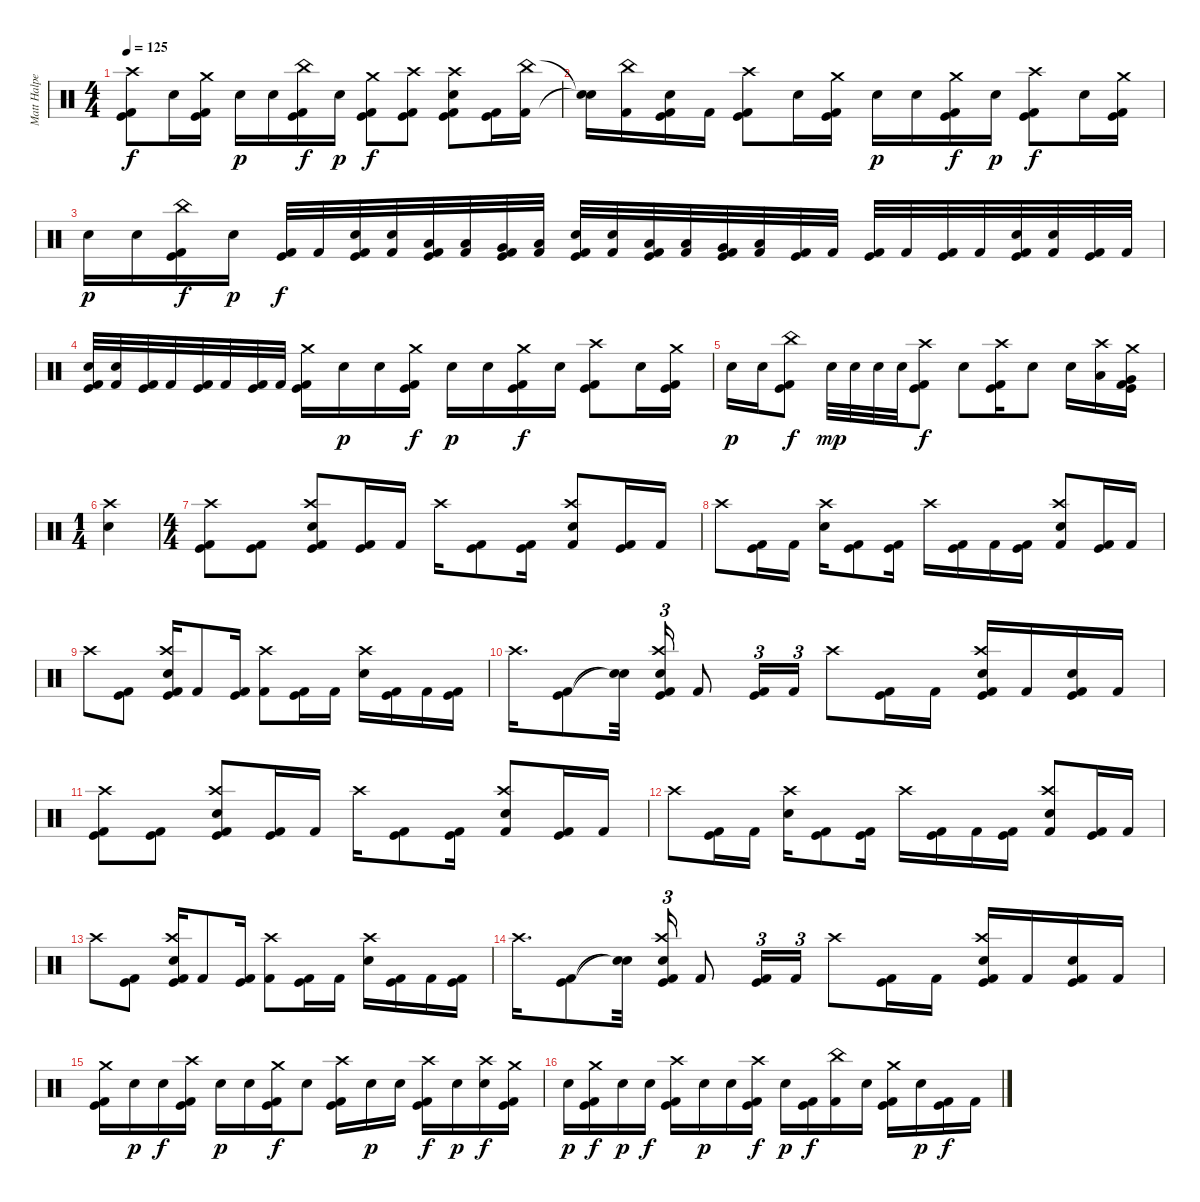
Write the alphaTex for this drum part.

\track ("Matt Halpern" "Matt Halpe") {instrument percussion}
\staff {score}
\articulation defaults
\ts (4 4)
\tempo 125
\clef neutral
\ks c
("Kick (hit) 2" "Kick (hit)" "Crash high (hit)").8{dy f} "Electric Snare (hit)".16 ("Kick (hit) 2" "Kick (hit)" "Crash medium (hit)").16 "Electric Snare (hit)".16{dy p} "Electric Snare (hit)".16 ("Kick (hit) 2" "Kick (hit)" "China (hit)").16{dy f} "Electric Snare (hit)".16{dy p} ("Kick (hit) 2" "Kick (hit)" "Crash medium (hit)").8{dy f} ("Kick (hit) 2" "Kick (hit)" "Crash high (hit)").8 ("Kick (hit) 2" "Kick (hit)" "Electric Snare (hit)" "Crash high (hit)").8 ("Kick (hit) 2" "Kick (hit)").16 ("Kick (hit) 2" "China (hit)").16 |
("Snare (hit)"{t} "Snare (hit)"{t}).16 ("Kick (hit) 2" "China (hit)").16 ("Kick (hit) 2" "Kick (hit)" "Electric Snare (hit)").16 "Kick (hit) 2".16 ("Kick (hit) 2" "Kick (hit)" "Crash high (hit)").8 "Electric Snare (hit)".16 ("Kick (hit) 2" "Kick (hit)" "Crash medium (hit)").16 "Electric Snare (hit)".16{dy p} "Electric Snare (hit)".16 ("Kick (hit) 2" "Kick (hit)" "Crash medium (hit)").16{dy f} "Electric Snare (hit)".16{dy p} ("Kick (hit) 2" "Kick (hit)" "Crash high (hit)").8{dy f} "Electric Snare (hit)".16 ("Kick (hit) 2" "Kick (hit)" "Crash medium (hit)").16 |
"Electric Snare (hit)".16{dy p} "Electric Snare (hit)".16 ("Kick (hit) 2" "Kick (hit)" "China (hit)").16{dy f} "Electric Snare (hit)".16{dy p} ("Kick (hit) 2" "Kick (hit)").32{dy f} "Kick (hit) 2".32 ("Kick (hit) 2" "Kick (hit)" "Electric Snare (hit)").32 ("Kick (hit) 2" "Electric Snare (hit)").32 ("Kick (hit) 2" "Kick (hit)" "Low Tom (hit)").32 ("Kick (hit) 2" "Low Tom (hit)").32 ("Kick (hit) 2" "Kick (hit)" "Very Low Tom (hit)").32 ("Kick (hit) 2" "Low Floor Tom (hit)").32 ("Kick (hit) 2" "Kick (hit)" "Electric Snare (hit)").32 ("Kick (hit) 2" "Electric Snare (hit)").32 ("Kick (hit) 2" "Kick (hit)" "Low Tom (hit)").32 ("Kick (hit) 2" "Low Tom (hit)").32 ("Kick (hit) 2" "Kick (hit)" "Very Low Tom (hit)").32 ("Kick (hit) 2" "Low Floor Tom (hit)").32 ("Kick (hit) 2" "Kick (hit)").32 "Kick (hit) 2".32 ("Kick (hit) 2" "Kick (hit)").32 "Kick (hit) 2".32 ("Kick (hit) 2" "Kick (hit)").32 "Kick (hit) 2".32 ("Kick (hit) 2" "Kick (hit)" "Electric Snare (hit)").32 ("Kick (hit) 2" "Electric Snare (hit)").32 ("Kick (hit) 2" "Kick (hit)").32 "Kick (hit) 2".32 |
("Kick (hit) 2" "Kick (hit)" "Electric Snare (hit)").32 ("Kick (hit) 2" "Electric Snare (hit)").32 ("Kick (hit) 2" "Kick (hit)").32 "Kick (hit) 2".32 ("Kick (hit) 2" "Kick (hit)").32 "Kick (hit) 2".32 ("Kick (hit) 2" "Kick (hit)").32 "Kick (hit) 2".32 ("Kick (hit) 2" "Kick (hit)" "Crash medium (hit)").16 "Electric Snare (hit)".16{dy p} "Electric Snare (hit)".16 ("Kick (hit) 2" "Kick (hit)" "Crash medium (hit)").16{dy f} "Electric Snare (hit)".16{dy p} "Electric Snare (hit)".16 ("Kick (hit) 2" "Kick (hit)" "Crash medium (hit)").16{dy f} "Electric Snare (hit)".16 ("Kick (hit) 2" "Kick (hit)" "Crash high (hit)").8 "Electric Snare (hit)".16 ("Kick (hit) 2" "Kick (hit)" "Crash medium (hit)").16 |
"Electric Snare (hit)".16{dy p} "Electric Snare (hit)".16 ("Kick (hit) 2" "Kick (hit)" "China (hit)").8{dy f} "Electric Snare (hit)".32{dy mp} "Electric Snare (hit)".32 "Electric Snare (hit)".32 "Electric Snare (hit)".32 ("Kick (hit) 2" "Kick (hit)" "Crash high (hit)").8{dy f} "Electric Snare (hit)".8 ("Kick (hit) 2" "Kick (hit)" "Crash high (hit)").16 "Electric Snare (hit)".8 "Electric Snare (hit)".16 ("Low Tom (hit)" "Crash high (hit)").16 ("Kick (hit) 2" "Kick (hit)" "Very Low Tom (hit)" "Crash medium (hit)").16 |
\ts (1 4)
("Electric Snare (hit)" "Crash high (hit)").4 |
\ts (4 4)
("Kick (hit) 2" "Kick (hit)" "Crash high (hit)").8 ("Kick (hit) 2" "Kick (hit)").8 ("Kick (hit) 2" "Kick (hit)" "Electric Snare (hit)" "Crash high (hit)").8 ("Kick (hit) 2" "Kick (hit)").16 "Kick (hit) 2".16 "Crash high (hit)".16 ("Kick (hit) 2" "Kick (hit)").8 ("Kick (hit) 2" "Kick (hit)").16 ("Kick (hit) 2" "Electric Snare (hit)" "Crash high (hit)").8 ("Kick (hit) 2" "Kick (hit)").16 "Kick (hit) 2".16 |
"Crash high (hit)".8 ("Kick (hit) 2" "Kick (hit)").16 "Kick (hit) 2".16 ("Electric Snare (hit)" "Crash high (hit)").16 ("Kick (hit) 2" "Kick (hit)").8 ("Kick (hit) 2" "Kick (hit)").16 "Crash high (hit)".16 ("Kick (hit) 2" "Kick (hit)").16 "Kick (hit) 2".16 ("Kick (hit) 2" "Kick (hit)").16 ("Kick (hit) 2" "Electric Snare (hit)" "Crash high (hit)").8 ("Kick (hit) 2" "Kick (hit)").16 "Kick (hit) 2".16 |
"Crash high (hit)".8 ("Kick (hit) 2" "Kick (hit)").8 ("Kick (hit) 2" "Kick (hit)" "Electric Snare (hit)" "Crash high (hit)").16 "Kick (hit) 2".8 ("Kick (hit) 2" "Kick (hit)").16 ("Kick (hit) 2" "Crash high (hit)").8 ("Kick (hit) 2" "Kick (hit)").16 "Kick (hit) 2".16 ("Electric Snare (hit)" "Crash high (hit)").16 ("Kick (hit) 2" "Kick (hit)").16 "Kick (hit) 2".16 ("Kick (hit) 2" "Kick (hit)").16 |
"Crash high (hit)".16{d} ("Kick (hit) 2" "Kick (hit)").8 ("Snare (hit)"{t} "Snare (hit)"{t}).32 ("Kick (hit) 2" "Kick (hit)" "Electric Snare (hit)" "Crash high (hit)").16{tu (3 2)} "Kick (hit) 2".8 ("Kick (hit) 2" "Kick (hit)").16{tu (3 2)} "Kick (hit) 2".16{tu (3 2)} "Crash high (hit)".8 ("Kick (hit) 2" "Kick (hit)").16 "Kick (hit) 2".16 ("Kick (hit) 2" "Kick (hit)" "Electric Snare (hit)" "Crash high (hit)").16 "Kick (hit) 2".16 ("Kick (hit) 2" "Kick (hit)" "Electric Snare (hit)").16 "Kick (hit) 2".16 |
("Kick (hit) 2" "Kick (hit)" "Crash high (hit)").8 ("Kick (hit) 2" "Kick (hit)").8 ("Kick (hit) 2" "Kick (hit)" "Electric Snare (hit)" "Crash high (hit)").8 ("Kick (hit) 2" "Kick (hit)").16 "Kick (hit) 2".16 "Crash high (hit)".16 ("Kick (hit) 2" "Kick (hit)").8 ("Kick (hit) 2" "Kick (hit)").16 ("Kick (hit) 2" "Electric Snare (hit)" "Crash high (hit)").8 ("Kick (hit) 2" "Kick (hit)").16 "Kick (hit) 2".16 |
"Crash high (hit)".8 ("Kick (hit) 2" "Kick (hit)").16 "Kick (hit) 2".16 ("Electric Snare (hit)" "Crash high (hit)").16 ("Kick (hit) 2" "Kick (hit)").8 ("Kick (hit) 2" "Kick (hit)").16 "Crash high (hit)".16 ("Kick (hit) 2" "Kick (hit)").16 "Kick (hit) 2".16 ("Kick (hit) 2" "Kick (hit)").16 ("Kick (hit) 2" "Electric Snare (hit)" "Crash high (hit)").8 ("Kick (hit) 2" "Kick (hit)").16 "Kick (hit) 2".16 |
"Crash high (hit)".8 ("Kick (hit) 2" "Kick (hit)").8 ("Kick (hit) 2" "Kick (hit)" "Electric Snare (hit)" "Crash high (hit)").16 "Kick (hit) 2".8 ("Kick (hit) 2" "Kick (hit)").16 ("Kick (hit) 2" "Crash high (hit)").8 ("Kick (hit) 2" "Kick (hit)").16 "Kick (hit) 2".16 ("Electric Snare (hit)" "Crash high (hit)").16 ("Kick (hit) 2" "Kick (hit)").16 "Kick (hit) 2".16 ("Kick (hit) 2" "Kick (hit)").16 |
"Crash high (hit)".16{d} ("Kick (hit) 2" "Kick (hit)").8 ("Snare (hit)"{t} "Snare (hit)"{t}).32 ("Kick (hit) 2" "Kick (hit)" "Electric Snare (hit)" "Crash high (hit)").16{tu (3 2)} "Kick (hit) 2".8 ("Kick (hit) 2" "Kick (hit)").16{tu (3 2)} "Kick (hit) 2".16{tu (3 2)} "Crash high (hit)".8 ("Kick (hit) 2" "Kick (hit)").16 "Kick (hit) 2".16 ("Kick (hit) 2" "Kick (hit)" "Electric Snare (hit)" "Crash high (hit)").16 "Kick (hit) 2".16 ("Kick (hit) 2" "Kick (hit)" "Electric Snare (hit)").16 "Kick (hit) 2".16 |
("Kick (hit) 2" "Kick (hit)" "Crash medium (hit)").16 "Electric Snare (hit)".16{dy p} "Electric Snare (hit)".16{dy f} ("Kick (hit) 2" "Kick (hit)" "Crash high (hit)").16 "Electric Snare (hit)".16{dy p} "Electric Snare (hit)".16 ("Kick (hit) 2" "Kick (hit)" "Crash medium (hit)").16{dy f} "Electric Snare (hit)".8 ("Kick (hit) 2" "Kick (hit)" "Crash high (hit)").16 "Electric Snare (hit)".16{dy p} "Electric Snare (hit)".16 ("Kick (hit) 2" "Kick (hit)" "Crash high (hit)").16{dy f} "Electric Snare (hit)".16{dy p} ("Electric Snare (hit)" "Crash high (hit)").16{dy f} ("Kick (hit) 2" "Kick (hit)" "Crash medium (hit)").16 |
"Electric Snare (hit)".16{dy p} ("Kick (hit) 2" "Kick (hit)" "Crash medium (hit)").16{dy f} "Electric Snare (hit)".16{dy p} "Electric Snare (hit)".16{dy f} ("Kick (hit) 2" "Kick (hit)" "Crash high (hit)").16 "Electric Snare (hit)".16{dy p} "Electric Snare (hit)".16 ("Kick (hit) 2" "Kick (hit)" "Crash high (hit)").16{dy f} "Electric Snare (hit)".16{dy p} ("Kick (hit) 2" "Kick (hit)").16{dy f} ("Kick (hit) 2" "China (hit)").16 "Electric Snare (hit)".16 ("Kick (hit) 2" "Kick (hit)" "Crash medium (hit)").16 "Electric Snare (hit)".16{dy p} ("Kick (hit) 2" "Kick (hit)").16{dy f} "Kick (hit) 2".16
